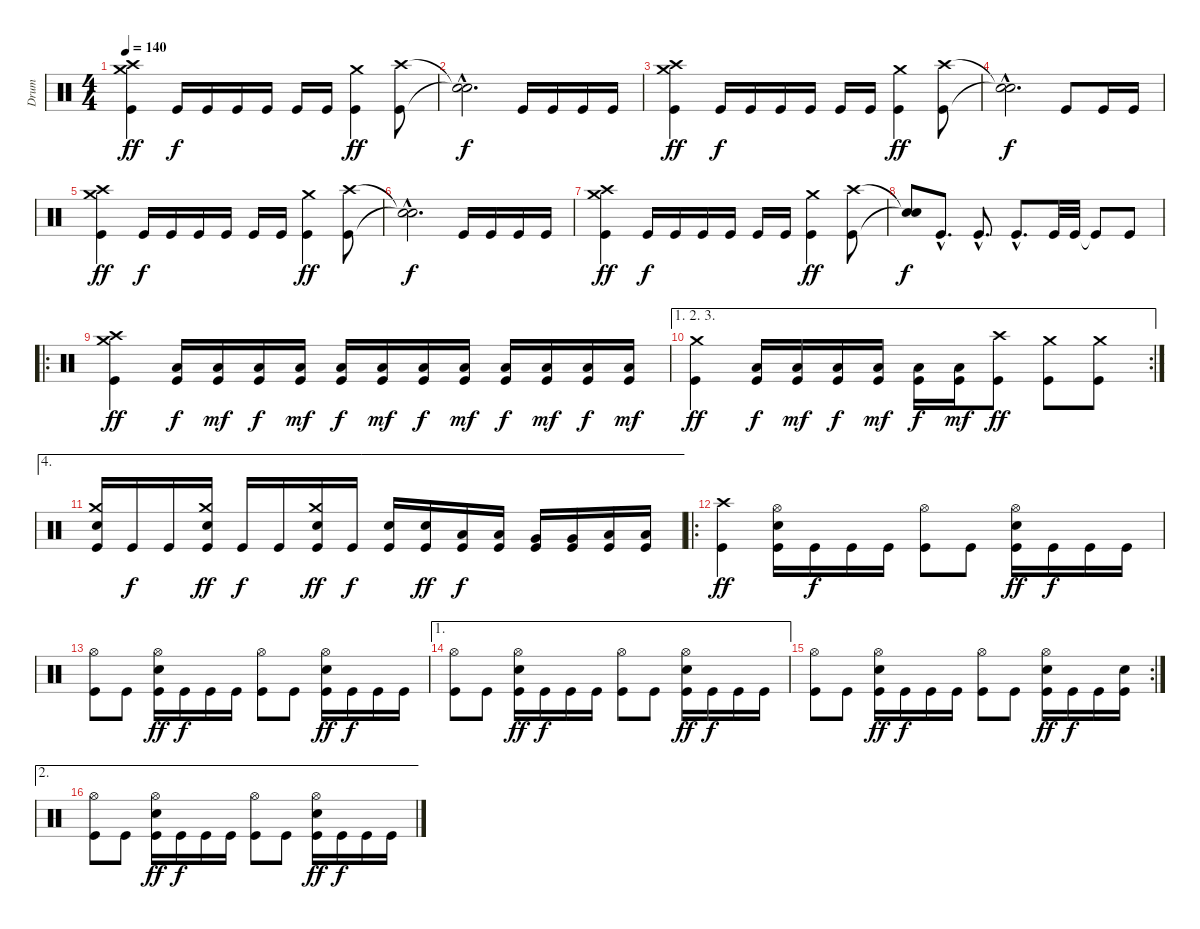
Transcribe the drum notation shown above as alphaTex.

\track ("Drum" "Drum") {instrument percussion}
\staff {score}
\articulation defaults
\ts (4 4)
\tempo 140
\clef neutral
\ks c
("Kick (hit)" "Crash high (hit)" "Crash medium (hit)").4{dy ff} "Kick (hit)".16{dy f} "Kick (hit)".16 "Kick (hit)".16 "Kick (hit)".16 "Kick (hit)".16 "Kick (hit)".16 ("Kick (hit)" "Crash medium (hit)").4{dy ff} ("Kick (hit)" "Crash high (hit)").8 |
("Snare (hit)"{hac t} "Snare (hit)"{hac t}).2{d dy f} "Kick (hit)".16 "Kick (hit)".16 "Kick (hit)".16 "Kick (hit)".16 |
("Kick (hit)" "Crash high (hit)" "Crash medium (hit)").4{dy ff} "Kick (hit)".16{dy f} "Kick (hit)".16 "Kick (hit)".16 "Kick (hit)".16 "Kick (hit)".16 "Kick (hit)".16 ("Kick (hit)" "Crash medium (hit)").4{dy ff} ("Kick (hit)" "Crash high (hit)").8 |
("Snare (hit)"{hac t} "Snare (hit)"{hac t}).2{d dy f} "Kick (hit)".8 "Kick (hit)".16 "Kick (hit)".16 |
("Kick (hit)" "Crash high (hit)" "Crash medium (hit)").4{dy ff} "Kick (hit)".16{dy f} "Kick (hit)".16 "Kick (hit)".16 "Kick (hit)".16 "Kick (hit)".16 "Kick (hit)".16 ("Kick (hit)" "Crash medium (hit)").4{dy ff} ("Kick (hit)" "Crash high (hit)").8 |
("Snare (hit)"{hac t} "Snare (hit)"{hac t}).2{d dy f} "Kick (hit)".16 "Kick (hit)".16 "Kick (hit)".16 "Kick (hit)".16 |
("Kick (hit)" "Crash high (hit)" "Crash medium (hit)").4{dy ff} "Kick (hit)".16{dy f} "Kick (hit)".16 "Kick (hit)".16 "Kick (hit)".16 "Kick (hit)".16 "Kick (hit)".16 ("Kick (hit)" "Crash medium (hit)").4{dy ff} ("Kick (hit)" "Crash high (hit)").8 |
("Snare (hit)"{t} "Snare (hit)"{t}).8{dy f} "Kick (hit)"{hac}.8{d} "Kick (hit)"{hac}.8{d} "Kick (hit)"{hac}.8{d} "Kick (hit)".32 "Kick (hit)".32 "Kick (hit)"{t}.8 "Kick (hit)".8 |
\ro
("Kick (hit)" "Crash high (hit)" "Crash medium (hit)").4{dy ff} ("Kick (hit)" "Low Floor Tom (hit)").16{dy f} ("Kick (hit)" "Low Floor Tom (hit)").16{dy mf} ("Kick (hit)" "Low Floor Tom (hit)").16{dy f} ("Kick (hit)" "Low Floor Tom (hit)").16{dy mf} ("Kick (hit)" "Low Floor Tom (hit)").16{dy f} ("Kick (hit)" "Low Floor Tom (hit)").16{dy mf} ("Kick (hit)" "Low Floor Tom (hit)").16{dy f} ("Kick (hit)" "Low Floor Tom (hit)").16{dy mf} ("Kick (hit)" "Low Floor Tom (hit)").16{dy f} ("Kick (hit)" "Low Floor Tom (hit)").16{dy mf} ("Kick (hit)" "Low Floor Tom (hit)").16{dy f} ("Kick (hit)" "Low Floor Tom (hit)").16{dy mf} |
\ae (1 2 3)
\rc 2
("Kick (hit)" "Crash medium (hit)").4{dy ff} ("Kick (hit)" "Low Floor Tom (hit)").16{dy f} ("Kick (hit)" "Low Floor Tom (hit)").16{dy mf} ("Kick (hit)" "Low Floor Tom (hit)").16{dy f} ("Kick (hit)" "Low Floor Tom (hit)").16{dy mf} ("Kick (hit)" "Low Floor Tom (hit)").16{dy f} ("Kick (hit)" "Low Floor Tom (hit)").16{dy mf} ("Kick (hit)" "Crash high (hit)").8{dy ff} ("Kick (hit)" "Crash medium (hit)").8 ("Kick (hit)" "Crash medium (hit)").8 |
\ae 4
("Kick (hit)" "Electric Snare (hit)" "Crash medium (hit)").16 "Kick (hit)".16{dy f} "Kick (hit)".16 ("Kick (hit)" "Electric Snare (hit)" "Crash medium (hit)").16{dy ff} "Kick (hit)".16{dy f} "Kick (hit)".16 ("Kick (hit)" "Electric Snare (hit)" "Crash medium (hit)").16{dy ff} "Kick (hit)".16{dy f} ("Kick (hit)" "Electric Snare (hit)").16 ("Kick (hit)" "Electric Snare (hit)").16{dy ff} ("Kick (hit)" "Low Tom (hit)").16{dy f} ("Kick (hit)" "Low Tom (hit)").16 ("Kick (hit)" "Very Low Tom (hit)").16 ("Kick (hit)" "Very Low Tom (hit)").16 ("Kick (hit)" "Low Floor Tom (hit)").16 ("Kick (hit)" "Low Floor Tom (hit)").16 |
\ro
("Kick (hit)" "Crash high (hit)").4{dy ff} ("Kick (hit)" "Electric Snare (hit)" "Hi-Hat (open)").16 "Kick (hit)".16{dy f} "Kick (hit)".16 "Kick (hit)".16 ("Kick (hit)" "Hi-Hat (open)").8 "Kick (hit)".8 ("Kick (hit)" "Electric Snare (hit)" "Hi-Hat (open)").16{dy ff} "Kick (hit)".16{dy f} "Kick (hit)".16 "Kick (hit)".16 |
("Kick (hit)" "Hi-Hat (open)").8 "Kick (hit)".8 ("Kick (hit)" "Electric Snare (hit)" "Hi-Hat (open)").16{dy ff} "Kick (hit)".16{dy f} "Kick (hit)".16 "Kick (hit)".16 ("Kick (hit)" "Hi-Hat (open)").8 "Kick (hit)".8 ("Kick (hit)" "Electric Snare (hit)" "Hi-Hat (open)").16{dy ff} "Kick (hit)".16{dy f} "Kick (hit)".16 "Kick (hit)".16 |
\ae 1
("Kick (hit)" "Hi-Hat (open)").8 "Kick (hit)".8 ("Kick (hit)" "Electric Snare (hit)" "Hi-Hat (open)").16{dy ff} "Kick (hit)".16{dy f} "Kick (hit)".16 "Kick (hit)".16 ("Kick (hit)" "Hi-Hat (open)").8 "Kick (hit)".8 ("Kick (hit)" "Electric Snare (hit)" "Hi-Hat (open)").16{dy ff} "Kick (hit)".16{dy f} "Kick (hit)".16 "Kick (hit)".16 |
\rc 2
("Kick (hit)" "Hi-Hat (open)").8 "Kick (hit)".8 ("Kick (hit)" "Electric Snare (hit)" "Hi-Hat (open)").16{dy ff} "Kick (hit)".16{dy f} "Kick (hit)".16 "Kick (hit)".16 ("Kick (hit)" "Hi-Hat (open)").8 "Kick (hit)".8 ("Kick (hit)" "Electric Snare (hit)" "Hi-Hat (open)").16{dy ff} "Kick (hit)".16{dy f} "Kick (hit)".16 ("Kick (hit)" "Electric Snare (hit)").16 |
\ae 2
("Kick (hit)" "Hi-Hat (open)").8 "Kick (hit)".8 ("Kick (hit)" "Electric Snare (hit)" "Hi-Hat (open)").16{dy ff} "Kick (hit)".16{dy f} "Kick (hit)".16 "Kick (hit)".16 ("Kick (hit)" "Hi-Hat (open)").8 "Kick (hit)".8 ("Kick (hit)" "Electric Snare (hit)" "Hi-Hat (open)").16{dy ff} "Kick (hit)".16{dy f} "Kick (hit)".16 "Kick (hit)".16
